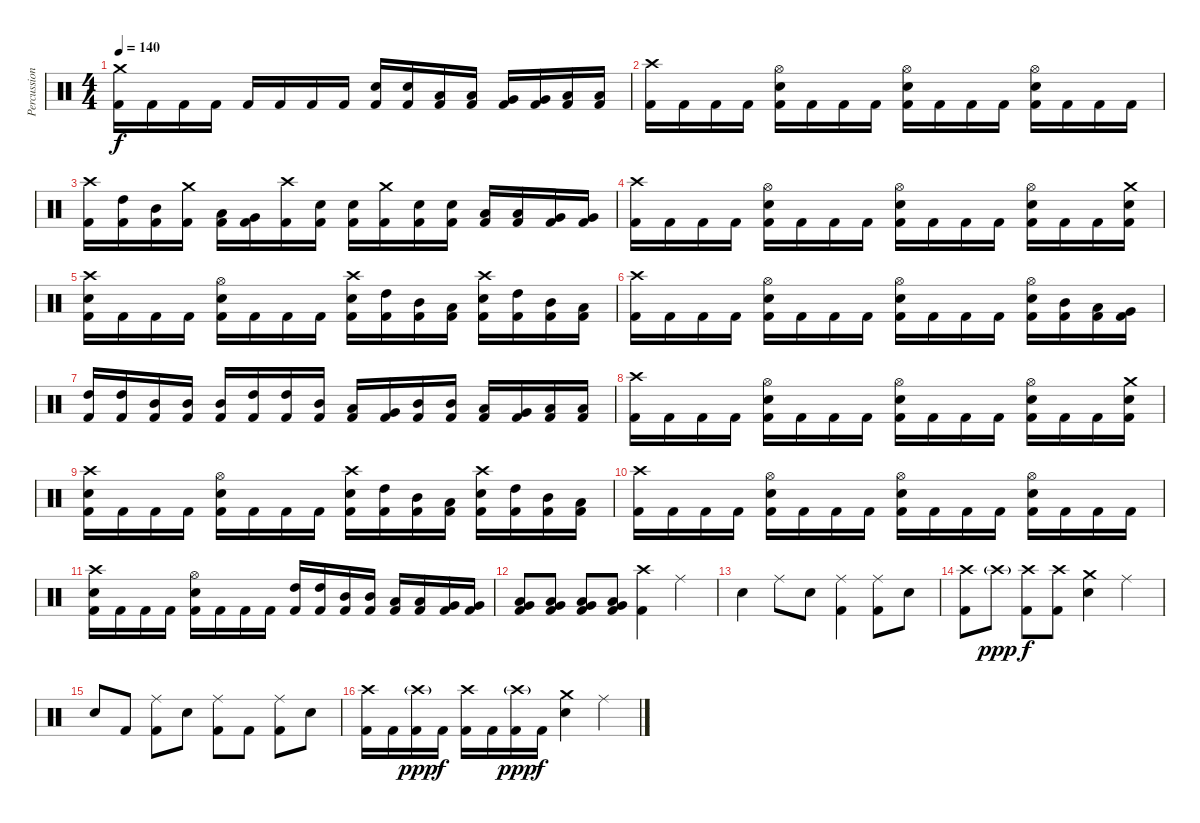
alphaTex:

\track ("Percussioni" "Percussion") {instrument percussion}
\staff {score}
\articulation defaults
\ts (4 4)
\tempo 140
\clef neutral
\ks c
("Crash medium (hit)" "Kick (hit) 2").16{dy f} "Kick (hit) 2".16 "Kick (hit) 2".16 "Kick (hit) 2".16 "Kick (hit) 2".16 "Kick (hit) 2".16 "Kick (hit) 2".16 "Kick (hit) 2".16 ("Electric Snare (hit)" "Kick (hit) 2").16 ("Electric Snare (hit)" "Kick (hit) 2").16 ("Low Tom (hit)" "Kick (hit) 2").16 ("Low Tom (hit)" "Kick (hit) 2").16 ("Very Low Tom (hit)" "Kick (hit) 2").16 ("Very Low Tom (hit)" "Kick (hit) 2").16 ("Low Floor Tom (hit)" "Kick (hit) 2").16 ("Low Floor Tom (hit)" "Kick (hit) 2").16 |
("Crash high (hit)" "Kick (hit) 2").16 "Kick (hit) 2".16 "Kick (hit) 2".16 "Kick (hit) 2".16 ("Hi-Hat (open)" "Electric Snare (hit)" "Kick (hit) 2").16 "Kick (hit) 2".16 "Kick (hit) 2".16 "Kick (hit) 2".16 ("Hi-Hat (open)" "Electric Snare (hit)" "Kick (hit) 2").16 "Kick (hit) 2".16 "Kick (hit) 2".16 "Kick (hit) 2".16 ("Hi-Hat (open)" "Electric Snare (hit)" "Kick (hit) 2").16 "Kick (hit) 2".16 "Kick (hit) 2".16 "Kick (hit) 2".16 |
("Crash high (hit)" "Kick (hit) 2").16 ("High Tom (hit)" "Kick (hit) 2").16 ("Mid Tom (hit)" "Kick (hit) 2").16 ("Crash medium (hit)" "Kick (hit) 2").16 ("Low Tom (hit)" "Kick (hit) 2").16 ("Very Low Tom (hit)" "Kick (hit) 2").16 ("Crash high (hit)" "Kick (hit) 2").16 ("Electric Snare (hit)" "Kick (hit) 2").16 ("Electric Snare (hit)" "Kick (hit) 2").16 ("Crash medium (hit)" "Kick (hit) 2").16 ("Electric Snare (hit)" "Kick (hit) 2").16 ("Electric Snare (hit)" "Kick (hit) 2").16 ("Low Tom (hit)" "Kick (hit) 2").16 ("Low Tom (hit)" "Kick (hit) 2").16 ("Very Low Tom (hit)" "Kick (hit) 2").16 ("Very Low Tom (hit)" "Kick (hit) 2").16 |
("Crash high (hit)" "Kick (hit) 2").16 "Kick (hit) 2".16 "Kick (hit) 2".16 "Kick (hit) 2".16 ("Hi-Hat (open)" "Electric Snare (hit)" "Kick (hit) 2").16 "Kick (hit) 2".16 "Kick (hit) 2".16 "Kick (hit) 2".16 ("Hi-Hat (open)" "Electric Snare (hit)" "Kick (hit) 2").16 "Kick (hit) 2".16 "Kick (hit) 2".16 "Kick (hit) 2".16 ("Hi-Hat (open)" "Electric Snare (hit)" "Kick (hit) 2").16 "Kick (hit) 2".16 "Kick (hit) 2".16 ("Crash medium (hit)" "Electric Snare (hit)" "Kick (hit) 2").16 |
("Crash high (hit)" "Electric Snare (hit)" "Kick (hit) 2").16 "Kick (hit) 2".16 "Kick (hit) 2".16 "Kick (hit) 2".16 ("Hi-Hat (open)" "Electric Snare (hit)" "Kick (hit) 2").16 "Kick (hit) 2".16 "Kick (hit) 2".16 "Kick (hit) 2".16 ("Crash high (hit)" "Electric Snare (hit)" "Kick (hit) 2").16 ("High Tom (hit)" "Kick (hit) 2").16 ("Mid Tom (hit)" "Kick (hit) 2").16 ("Low Tom (hit)" "Kick (hit) 2").16 ("Crash high (hit)" "Electric Snare (hit)" "Kick (hit) 2").16 ("High Tom (hit)" "Kick (hit) 2").16 ("Mid Tom (hit)" "Kick (hit) 2").16 ("Low Tom (hit)" "Kick (hit) 2").16 |
("Crash high (hit)" "Kick (hit) 2").16 "Kick (hit) 2".16 "Kick (hit) 2".16 "Kick (hit) 2".16 ("Hi-Hat (open)" "Electric Snare (hit)" "Kick (hit) 2").16 "Kick (hit) 2".16 "Kick (hit) 2".16 "Kick (hit) 2".16 ("Hi-Hat (open)" "Electric Snare (hit)" "Kick (hit) 2").16 "Kick (hit) 2".16 "Kick (hit) 2".16 "Kick (hit) 2".16 ("Hi-Hat (open)" "Electric Snare (hit)" "Kick (hit) 2").16 ("Mid Tom (hit)" "Kick (hit) 2").16 ("Low Tom (hit)" "Kick (hit) 2").16 ("Very Low Tom (hit)" "Kick (hit) 2").16 |
("High Tom (hit)" "Kick (hit) 2").16 ("High Tom (hit)" "Kick (hit) 2").16 ("Mid Tom (hit)" "Kick (hit) 2").16 ("Mid Tom (hit)" "Kick (hit) 2").16 ("Mid Tom (hit)" "Kick (hit) 2").16 ("High Tom (hit)" "Kick (hit) 2").16 ("High Tom (hit)" "Kick (hit) 2").16 ("Mid Tom (hit)" "Kick (hit) 2").16 ("Low Tom (hit)" "Kick (hit) 2").16 ("Very Low Tom (hit)" "Kick (hit) 2").16 ("Mid Tom (hit)" "Kick (hit) 2").16 ("Mid Tom (hit)" "Kick (hit) 2").16 ("Low Tom (hit)" "Kick (hit) 2").16 ("Very Low Tom (hit)" "Kick (hit) 2").16 ("Low Floor Tom (hit)" "Kick (hit) 2").16 ("Low Floor Tom (hit)" "Kick (hit) 2").16 |
\section ("" "")
("Crash high (hit)" "Kick (hit) 2").16 "Kick (hit) 2".16 "Kick (hit) 2".16 "Kick (hit) 2".16 ("Hi-Hat (open)" "Electric Snare (hit)" "Kick (hit) 2").16 "Kick (hit) 2".16 "Kick (hit) 2".16 "Kick (hit) 2".16 ("Hi-Hat (open)" "Electric Snare (hit)" "Kick (hit) 2").16 "Kick (hit) 2".16 "Kick (hit) 2".16 "Kick (hit) 2".16 ("Hi-Hat (open)" "Electric Snare (hit)" "Kick (hit) 2").16 "Kick (hit) 2".16 "Kick (hit) 2".16 ("Crash medium (hit)" "Electric Snare (hit)" "Kick (hit) 2").16 |
("Crash high (hit)" "Electric Snare (hit)" "Kick (hit) 2").16 "Kick (hit) 2".16 "Kick (hit) 2".16 "Kick (hit) 2".16 ("Hi-Hat (open)" "Electric Snare (hit)" "Kick (hit) 2").16 "Kick (hit) 2".16 "Kick (hit) 2".16 "Kick (hit) 2".16 ("Crash high (hit)" "Electric Snare (hit)" "Kick (hit) 2").16 ("High Tom (hit)" "Kick (hit) 2").16 ("Mid Tom (hit)" "Kick (hit) 2").16 ("Low Tom (hit)" "Kick (hit) 2").16 ("Crash high (hit)" "Electric Snare (hit)" "Kick (hit) 2").16 ("High Tom (hit)" "Kick (hit) 2").16 ("Mid Tom (hit)" "Kick (hit) 2").16 ("Low Tom (hit)" "Kick (hit) 2").16 |
("Crash high (hit)" "Kick (hit) 2").16 "Kick (hit) 2".16 "Kick (hit) 2".16 "Kick (hit) 2".16 ("Hi-Hat (open)" "Electric Snare (hit)" "Kick (hit) 2").16 "Kick (hit) 2".16 "Kick (hit) 2".16 "Kick (hit) 2".16 ("Hi-Hat (open)" "Electric Snare (hit)" "Kick (hit) 2").16 "Kick (hit) 2".16 "Kick (hit) 2".16 "Kick (hit) 2".16 ("Hi-Hat (open)" "Electric Snare (hit)" "Kick (hit) 2").16 "Kick (hit) 2".16 "Kick (hit) 2".16 "Kick (hit) 2".16 |
("Crash high (hit)" "Electric Snare (hit)" "Kick (hit) 2").16 "Kick (hit) 2".16 "Kick (hit) 2".16 "Kick (hit) 2".16 ("Hi-Hat (open)" "Electric Snare (hit)" "Kick (hit) 2").16 "Kick (hit) 2".16 "Kick (hit) 2".16 "Kick (hit) 2".16 ("High Tom (hit)" "Kick (hit) 2").16 ("High Tom (hit)" "Kick (hit) 2").16 ("Mid Tom (hit)" "Kick (hit) 2").16 ("Mid Tom (hit)" "Kick (hit) 2").16 ("Low Tom (hit)" "Kick (hit) 2").16 ("Low Tom (hit)" "Kick (hit) 2").16 ("Very Low Tom (hit)" "Kick (hit) 2").16 ("Very Low Tom (hit)" "Kick (hit) 2").16 |
("Very Low Tom (hit)" "Low Floor Tom (hit)" "Kick (hit) 2").8 ("Very Low Tom (hit)" "Low Floor Tom (hit)" "Kick (hit) 2").8 ("Very Low Tom (hit)" "Low Floor Tom (hit)" "Kick (hit) 2").8 ("Very Low Tom (hit)" "Low Floor Tom (hit)" "Kick (hit) 2").8 ("Crash high (hit)" "Kick (hit) 2").4 "Ride (middle)".4 |
"Electric Snare (hit)".4 "Ride (middle)".8 "Electric Snare (hit)".8 ("Ride (middle)" "Kick (hit) 2").4 ("Ride (middle)" "Kick (hit) 2").8 "Electric Snare (hit)".8 |
("Crash high (hit)" "Kick (hit) 2").8 "Crash high (hit)"{g}.8{dy ppp} ("Crash high (hit)" "Kick (hit) 2").8{dy f} ("Crash high (hit)" "Kick (hit) 2").8 ("Crash medium (hit)" "Electric Snare (hit)").4 "Ride (middle)".4 |
"Electric Snare (hit)".8 "Kick (hit) 2".8 ("Ride (middle)" "Kick (hit) 2").8 "Electric Snare (hit)".8 ("Ride (middle)" "Kick (hit) 2").8 "Kick (hit) 2".8 ("Ride (middle)" "Kick (hit) 2").8 "Electric Snare (hit)".8 |
("Crash high (hit)" "Kick (hit) 2").16 "Kick (hit) 2".16 ("Crash high (hit)"{g} "Kick (hit) 2").16{dy ppp} "Kick (hit) 2".16{dy f} ("Crash high (hit)" "Kick (hit) 2").16 "Kick (hit) 2".16 ("Crash high (hit)"{g} "Kick (hit) 2").16{dy ppp} "Kick (hit) 2".16{dy f} ("Crash medium (hit)" "Electric Snare (hit)").4 "Ride (middle)".4
